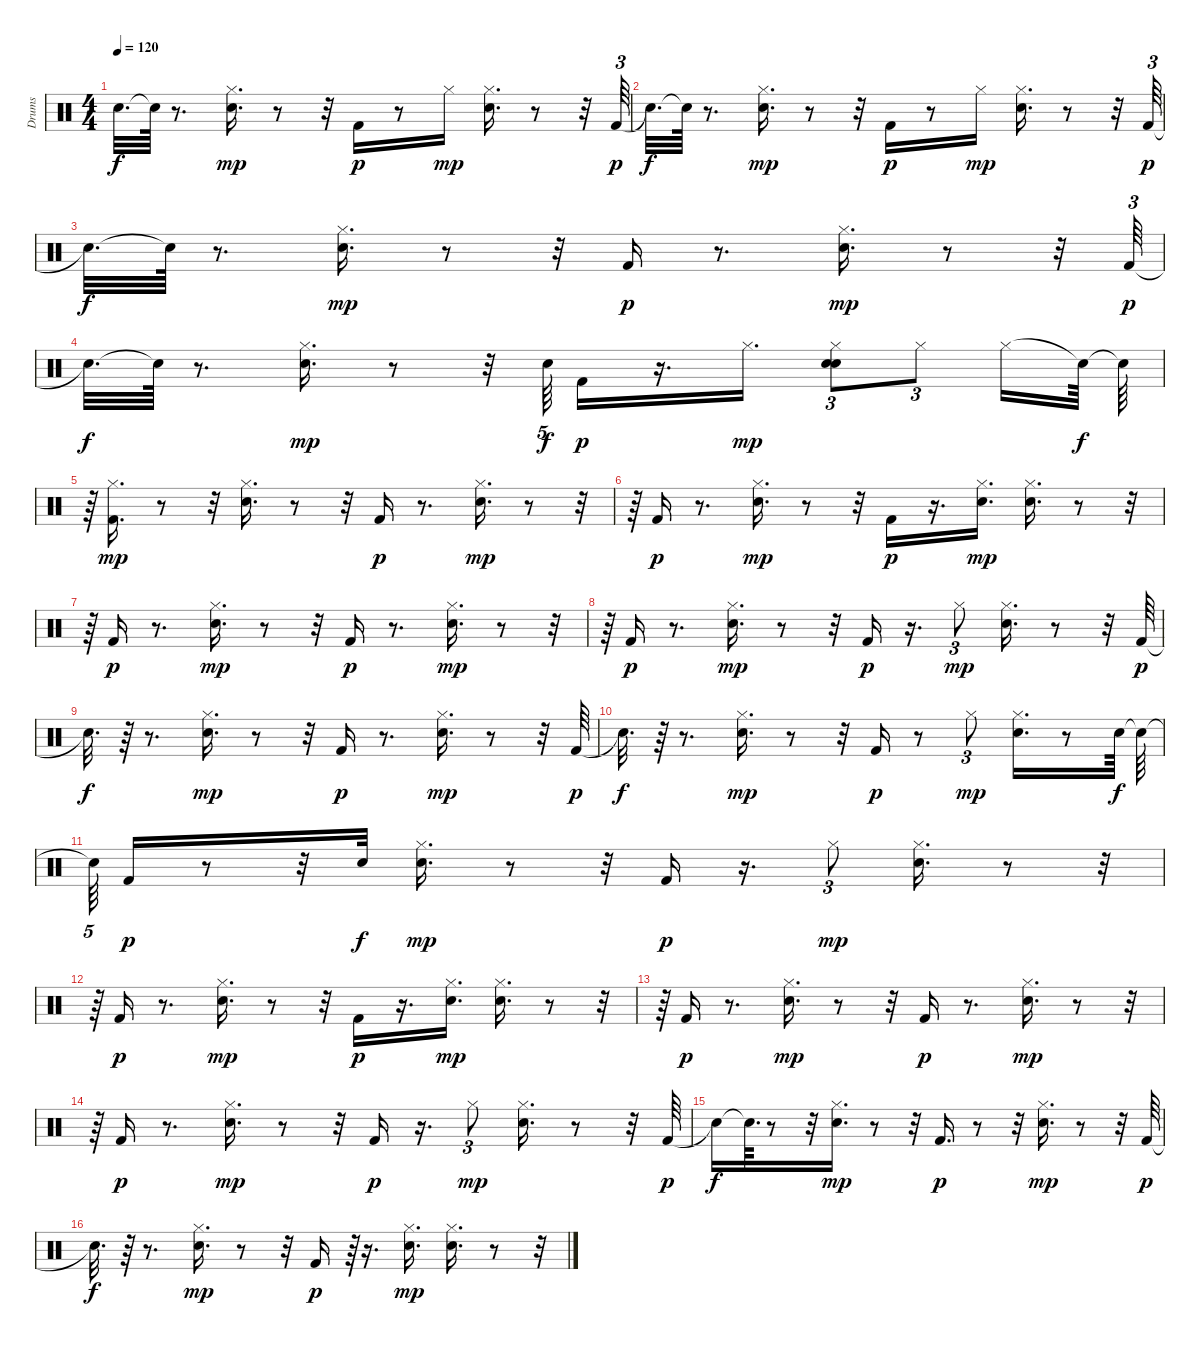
\track ("Drums" "Drums") {instrument percussion}
\staff {score}
\articulation defaults
\ts (4 4)
\tempo 120
\clef neutral
\ks c "Snare (hit)"{t}.32{d dy f} "Snare (hit)"{t}.64
r.8{d} ("Snare (hit) 2" "Hi-Hat (closed)").16{d dy mp} r.8 r.32 "Kick (hit) 2".16{dy p} r.8 "Hi-Hat (closed)".16{dy mp} ("Snare (hit) 2" "Hi-Hat (closed)").16{d} r.8 r.32 "Kick (hit) 2".64{tu (3 2) dy p} |
"Snare (hit)"{t}.32{d dy f} "Snare (hit)"{t}.64 r.8{d} ("Snare (hit) 2" "Hi-Hat (closed)").16{d dy mp} r.8 r.32 "Kick (hit) 2".16{dy p} r.8 "Hi-Hat (closed)".16{dy mp} ("Snare (hit) 2" "Hi-Hat (closed)").16{d} r.8 r.32 "Kick (hit) 2".64{tu (3 2) dy p} |
"Snare (hit)"{t}.32{d dy f} "Snare (hit)"{t}.64 r.8{d} ("Hi-Hat (closed)" "Snare (hit) 2").16{d dy mp} r.8 r.32 "Kick (hit) 2".16{dy p} r.8{d} ("Snare (hit) 2" "Hi-Hat (closed)").16{d dy mp} r.8 r.32 "Kick (hit) 2".64{tu (3 2) dy p} |
"Snare (hit)"{t}.32{d dy f} "Snare (hit)"{t}.64 r.8{d} ("Snare (hit) 2" "Hi-Hat (closed)").16{d dy mp} r.8 r.32 "Hand Clap (hit)".64{tu (5 4) dy f} "Kick (hit) 2".16{dy p} r.16{d} "Hi-Hat (closed)".16{d dy mp} ("Snare (hit) 2" "Hi-Hat (closed)" "Hand Clap (hit)").8{tu (3 2)} "Hi-Hat (closed)".8{tu (3 2)} "Hi-Hat (closed)".16 "Snare (hit)"{t}.64{dy f} "Snare (hit)"{t}.64 |
r.64 ("Kick (hit) 2" "Hi-Hat (closed)").16{d dy mp} r.8 r.32 ("Snare (hit) 2" "Hi-Hat (closed)").16{d} r.8 r.32 "Kick (hit) 2".16{dy p} r.8{d} ("Snare (hit) 2" "Hi-Hat (closed)").16{d dy mp} r.8 r.32 |
r.64 "Kick (hit) 2".16{dy p} r.8{d} ("Snare (hit) 2" "Hi-Hat (closed)").16{d dy mp} r.8 r.32 "Kick (hit) 2".16{dy p} r.16{d} ("Hi-Hat (closed)" "Snare (hit) 2").16{d dy mp} ("Snare (hit) 2" "Hi-Hat (closed)").16{d} r.8 r.32 |
r.64 "Kick (hit) 2".16{dy p} r.8{d} ("Snare (hit) 2" "Hi-Hat (closed)").16{d dy mp} r.8 r.32 "Kick (hit) 2".16{dy p} r.8{d} ("Snare (hit) 2" "Hi-Hat (closed)").16{d dy mp} r.8 r.32 |
r.64 "Kick (hit) 2".16{dy p} r.8{d} ("Hi-Hat (closed)" "Snare (hit) 2").16{d dy mp} r.8 r.32 "Kick (hit) 2".16{dy p} r.16{d} "Hi-Hat (closed)".8{tu (3 2) dy mp} ("Hi-Hat (closed)" "Snare (hit) 2").16{d} r.8 r.32 "Kick (hit) 2".64{dy p} |
"Snare (hit)"{t}.32{d dy f} r.64 r.8{d} ("Hi-Hat (closed)" "Snare (hit) 2").16{d dy mp} r.8 r.32 "Kick (hit) 2".16{dy p} r.8{d} ("Snare (hit) 2" "Hi-Hat (closed)").16{d dy mp} r.8 r.32 "Kick (hit) 2".64{dy p} |
"Snare (hit)"{t}.32{d dy f} r.64 r.8{d} ("Hi-Hat (closed)" "Snare (hit) 2").16{d dy mp} r.8 r.32 "Kick (hit) 2".16{dy p} r.8 "Hi-Hat (closed)".8{tu (3 2) dy mp} ("Hi-Hat (closed)" "Snare (hit) 2").16{d} r.8 "Hand Clap (hit)".64{dy f} "Snare (hit)"{t}.64 |
"Snare (hit)"{t}.64{tu (5 4)} "Kick (hit) 2".16{dy p} r.8 r.32 "Hand Clap (hit)".32{dy f} ("Hi-Hat (closed)" "Snare (hit) 2").16{d dy mp} r.8 r.32 "Kick (hit) 2".16{dy p} r.16{d} "Hi-Hat (closed)".8{tu (3 2) dy mp} ("Hi-Hat (closed)" "Snare (hit) 2").16{d} r.8 r.32 |
r.64 "Kick (hit) 2".16{dy p} r.8{d} ("Hi-Hat (closed)" "Snare (hit) 2").16{d dy mp} r.8 r.32 "Kick (hit) 2".16{dy p} r.16{d} ("Snare (hit) 2" "Hi-Hat (closed)").16{d dy mp} ("Snare (hit) 2" "Hi-Hat (closed)").16{d} r.8 r.32 |
r.64 "Kick (hit) 2".16{dy p} r.8{d} ("Hi-Hat (closed)" "Snare (hit) 2").16{d dy mp} r.8 r.32 "Kick (hit) 2".16{dy p} r.8{d} ("Hi-Hat (closed)" "Snare (hit) 2").16{d dy mp} r.8 r.32 |
r.64 "Kick (hit) 2".16{dy p} r.8{d} ("Hi-Hat (closed)" "Snare (hit) 2").16{d dy mp} r.8 r.32 "Kick (hit) 2".16{dy p} r.16{d} "Hi-Hat (closed)".8{tu (3 2) dy mp} ("Hi-Hat (closed)" "Snare (hit) 2").16{d} r.8 r.32 "Kick (hit) 2".64{dy p} |
"Snare (hit)"{t}.16{dy f} "Snare (hit)"{t}.64{d} r.8 r.32 ("Snare (hit) 2" "Hi-Hat (closed)").16{d dy mp} r.8 r.32 "Kick (hit) 2".16{d dy p} r.8 r.32 ("Hi-Hat (closed)" "Snare (hit) 2").16{d dy mp} r.8 r.32 "Kick (hit) 2".64{dy p} |
"Snare (hit)"{t}.32{d dy f} r.64 r.8{d} ("Hi-Hat (closed)" "Snare (hit) 2").16{d dy mp} r.8 r.32 "Kick (hit) 2".16{dy p} r.64{tu (3 2)} r.16{d} ("Snare (hit) 2" "Hi-Hat (closed)").16{d dy mp} ("Snare (hit) 2" "Hi-Hat (closed)").16{d} r.8 r.32
